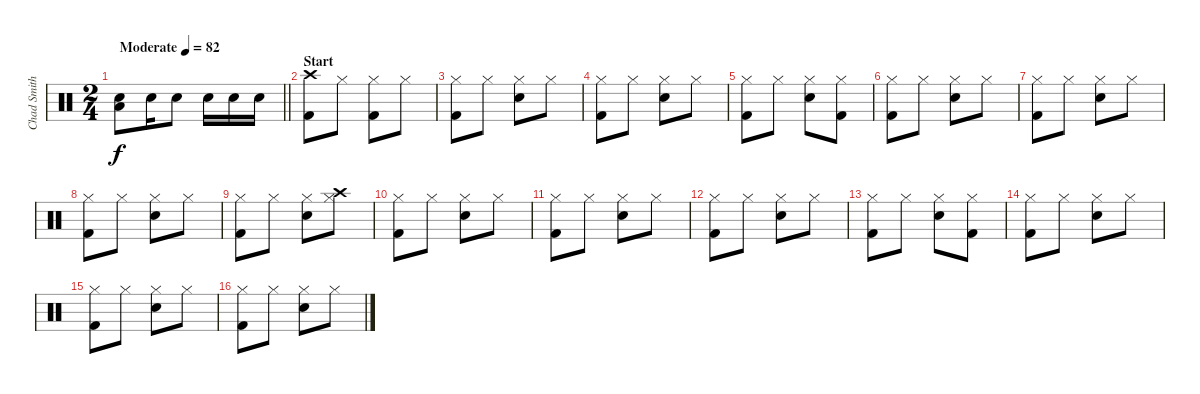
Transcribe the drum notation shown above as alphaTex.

\track ("Chad Smith Drum" "Chad Smith") {instrument percussion}
\staff {score}
\articulation defaults
\ts (2 4)
\tempo (82 "Moderate")
\clef neutral
\barLineRight lightlight
\ks c
("Snare (hit) 2" "Low Tom (hit)").8{dy f} "Snare (hit) 2".16 "Snare (hit) 2".8 "Snare (hit) 2".16 "Snare (hit) 2".16 "Snare (hit) 2".16 |
\section ("" "Start")
("Crash high (hit)" "Kick (hit) 2").8 "Hi-Hat (closed)".8 ("Kick (hit) 2" "Hi-Hat (closed)").8 "Hi-Hat (closed)".8 |
("Kick (hit) 2" "Hi-Hat (closed)").8 "Hi-Hat (closed)".8 ("Snare (hit) 2" "Hi-Hat (closed)").8 "Hi-Hat (closed)".8 |
("Kick (hit) 2" "Hi-Hat (closed)").8 "Hi-Hat (closed)".8 ("Snare (hit) 2" "Hi-Hat (closed)").8 "Hi-Hat (closed)".8 |
("Kick (hit) 2" "Hi-Hat (closed)").8 "Hi-Hat (closed)".8 ("Snare (hit) 2" "Hi-Hat (closed)").8 ("Kick (hit) 2" "Hi-Hat (closed)").8 |
("Kick (hit) 2" "Hi-Hat (closed)").8 "Hi-Hat (closed)".8 ("Snare (hit) 2" "Hi-Hat (closed)").8 "Hi-Hat (closed)".8 |
("Kick (hit) 2" "Hi-Hat (closed)").8 "Hi-Hat (closed)".8 ("Snare (hit) 2" "Hi-Hat (closed)").8 "Hi-Hat (closed)".8 |
("Kick (hit) 2" "Hi-Hat (closed)").8 "Hi-Hat (closed)".8 ("Snare (hit) 2" "Hi-Hat (closed)").8 "Hi-Hat (closed)".8 |
("Kick (hit) 2" "Hi-Hat (closed)").8 "Hi-Hat (closed)".8 ("Snare (hit) 2" "Hi-Hat (closed)").8 ("Crash high (hit)" "Hi-Hat (closed)").8 |
("Kick (hit) 2" "Hi-Hat (closed)").8 "Hi-Hat (closed)".8 ("Snare (hit) 2" "Hi-Hat (closed)").8 "Hi-Hat (closed)".8 |
("Kick (hit) 2" "Hi-Hat (closed)").8 "Hi-Hat (closed)".8 ("Snare (hit) 2" "Hi-Hat (closed)").8 "Hi-Hat (closed)".8 |
("Kick (hit) 2" "Hi-Hat (closed)").8 "Hi-Hat (closed)".8 ("Snare (hit) 2" "Hi-Hat (closed)").8 "Hi-Hat (closed)".8 |
("Kick (hit) 2" "Hi-Hat (closed)").8 "Hi-Hat (closed)".8 ("Snare (hit) 2" "Hi-Hat (closed)").8 ("Kick (hit) 2" "Hi-Hat (closed)").8 |
("Kick (hit) 2" "Hi-Hat (closed)").8 "Hi-Hat (closed)".8 ("Snare (hit) 2" "Hi-Hat (closed)").8 "Hi-Hat (closed)".8 |
("Kick (hit) 2" "Hi-Hat (closed)").8 "Hi-Hat (closed)".8 ("Snare (hit) 2" "Hi-Hat (closed)").8 "Hi-Hat (closed)".8 |
("Kick (hit) 2" "Hi-Hat (closed)").8 "Hi-Hat (closed)".8 ("Snare (hit) 2" "Hi-Hat (closed)").8 "Hi-Hat (closed)".8
